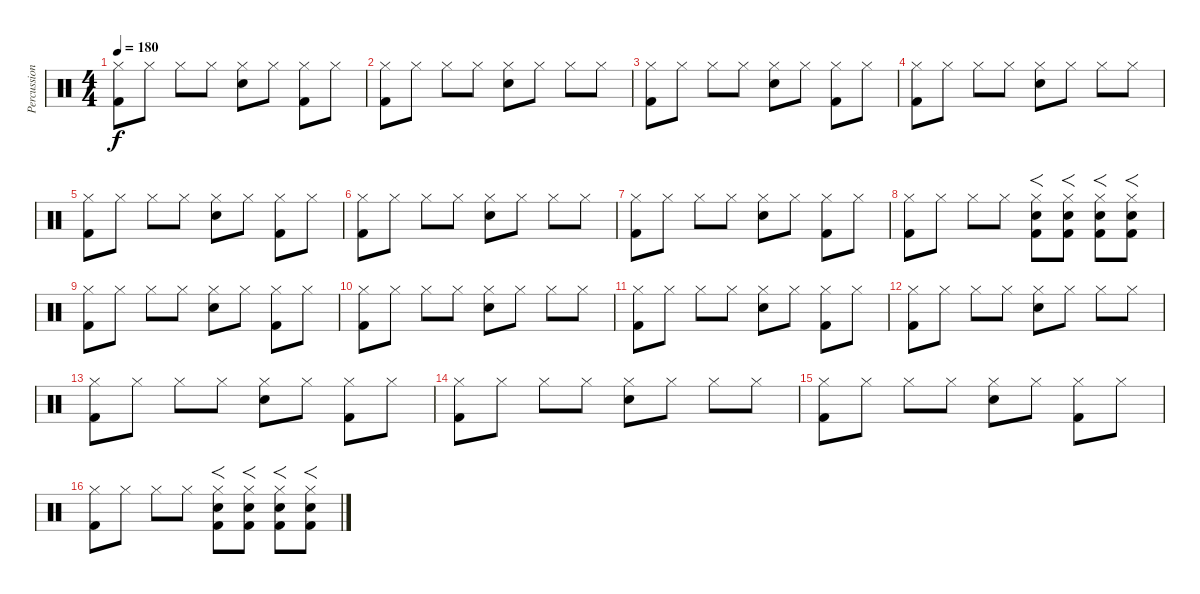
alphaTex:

\track ("Percussion" "Percussion") {instrument percussion}
\staff {score}
\articulation defaults
\ts (4 4)
\tempo 180
\clef neutral
\ks c
("Hi-Hat (closed)" "Kick (hit) 2").8{dy f} "Hi-Hat (closed)".8 "Hi-Hat (closed)".8 "Hi-Hat (closed)".8 ("Hi-Hat (closed)" "Hand Clap (hit)").8 "Hi-Hat (closed)".8 ("Hi-Hat (closed)" "Kick (hit) 2").8 "Hi-Hat (closed)".8 |
("Hi-Hat (closed)" "Kick (hit) 2").8 "Hi-Hat (closed)".8 "Hi-Hat (closed)".8 "Hi-Hat (closed)".8 ("Hi-Hat (closed)" "Hand Clap (hit)").8 "Hi-Hat (closed)".8 "Hi-Hat (closed)".8 "Hi-Hat (closed)".8 |
("Hi-Hat (closed)" "Kick (hit) 2").8 "Hi-Hat (closed)".8 "Hi-Hat (closed)".8 "Hi-Hat (closed)".8 ("Hi-Hat (closed)" "Hand Clap (hit)").8 "Hi-Hat (closed)".8 ("Hi-Hat (closed)" "Kick (hit) 2").8 "Hi-Hat (closed)".8 |
("Hi-Hat (closed)" "Kick (hit) 2").8 "Hi-Hat (closed)".8 "Hi-Hat (closed)".8 "Hi-Hat (closed)".8 ("Hi-Hat (closed)" "Hand Clap (hit)").8 "Hi-Hat (closed)".8 "Hi-Hat (closed)".8 "Hi-Hat (closed)".8 |
("Hi-Hat (closed)" "Kick (hit) 2").8 "Hi-Hat (closed)".8 "Hi-Hat (closed)".8 "Hi-Hat (closed)".8 ("Hi-Hat (closed)" "Hand Clap (hit)").8 "Hi-Hat (closed)".8 ("Hi-Hat (closed)" "Kick (hit) 2").8 "Hi-Hat (closed)".8 |
("Hi-Hat (closed)" "Kick (hit) 2").8 "Hi-Hat (closed)".8 "Hi-Hat (closed)".8 "Hi-Hat (closed)".8 ("Hi-Hat (closed)" "Hand Clap (hit)").8 "Hi-Hat (closed)".8 "Hi-Hat (closed)".8 "Hi-Hat (closed)".8 |
("Hi-Hat (closed)" "Kick (hit) 2").8 "Hi-Hat (closed)".8 "Hi-Hat (closed)".8 "Hi-Hat (closed)".8 ("Hi-Hat (closed)" "Hand Clap (hit)").8 "Hi-Hat (closed)".8 ("Hi-Hat (closed)" "Kick (hit) 2").8 "Hi-Hat (closed)".8 |
("Hi-Hat (closed)" "Kick (hit) 2").8 "Hi-Hat (closed)".8 "Hi-Hat (closed)".8 "Hi-Hat (closed)".8 ("Hi-Hat (closed)" "Electric Snare (hit)" "Kick (hit) 2").8{f} ("Hi-Hat (closed)" "Electric Snare (hit)" "Kick (hit) 2").8{f} ("Hi-Hat (closed)" "Electric Snare (hit)" "Kick (hit) 2").8{f} ("Hi-Hat (closed)" "Electric Snare (hit)" "Kick (hit) 2").8{f} |
("Hi-Hat (closed)" "Kick (hit) 2").8 "Hi-Hat (closed)".8 "Hi-Hat (closed)".8 "Hi-Hat (closed)".8 ("Hi-Hat (closed)" "Hand Clap (hit)").8 "Hi-Hat (closed)".8 ("Hi-Hat (closed)" "Kick (hit) 2").8 "Hi-Hat (closed)".8 |
("Hi-Hat (closed)" "Kick (hit) 2").8 "Hi-Hat (closed)".8 "Hi-Hat (closed)".8 "Hi-Hat (closed)".8 ("Hi-Hat (closed)" "Hand Clap (hit)").8 "Hi-Hat (closed)".8 "Hi-Hat (closed)".8 "Hi-Hat (closed)".8 |
("Hi-Hat (closed)" "Kick (hit) 2").8 "Hi-Hat (closed)".8 "Hi-Hat (closed)".8 "Hi-Hat (closed)".8 ("Hi-Hat (closed)" "Hand Clap (hit)").8 "Hi-Hat (closed)".8 ("Hi-Hat (closed)" "Kick (hit) 2").8 "Hi-Hat (closed)".8 |
("Hi-Hat (closed)" "Kick (hit) 2").8 "Hi-Hat (closed)".8 "Hi-Hat (closed)".8 "Hi-Hat (closed)".8 ("Hi-Hat (closed)" "Hand Clap (hit)").8 "Hi-Hat (closed)".8 "Hi-Hat (closed)".8 "Hi-Hat (closed)".8 |
("Hi-Hat (closed)" "Kick (hit) 2").8 "Hi-Hat (closed)".8 "Hi-Hat (closed)".8 "Hi-Hat (closed)".8 ("Hi-Hat (closed)" "Hand Clap (hit)").8 "Hi-Hat (closed)".8 ("Hi-Hat (closed)" "Kick (hit) 2").8 "Hi-Hat (closed)".8 |
("Hi-Hat (closed)" "Kick (hit) 2").8 "Hi-Hat (closed)".8 "Hi-Hat (closed)".8 "Hi-Hat (closed)".8 ("Hi-Hat (closed)" "Hand Clap (hit)").8 "Hi-Hat (closed)".8 "Hi-Hat (closed)".8 "Hi-Hat (closed)".8 |
("Hi-Hat (closed)" "Kick (hit) 2").8 "Hi-Hat (closed)".8 "Hi-Hat (closed)".8 "Hi-Hat (closed)".8 ("Hi-Hat (closed)" "Hand Clap (hit)").8 "Hi-Hat (closed)".8 ("Hi-Hat (closed)" "Kick (hit) 2").8 "Hi-Hat (closed)".8 |
("Hi-Hat (closed)" "Kick (hit) 2").8 "Hi-Hat (closed)".8 "Hi-Hat (closed)".8 "Hi-Hat (closed)".8 ("Hi-Hat (closed)" "Electric Snare (hit)" "Kick (hit) 2").8{f} ("Hi-Hat (closed)" "Electric Snare (hit)" "Kick (hit) 2").8{f} ("Hi-Hat (closed)" "Electric Snare (hit)" "Kick (hit) 2").8{f} ("Hi-Hat (closed)" "Electric Snare (hit)" "Kick (hit) 2").8{f}
